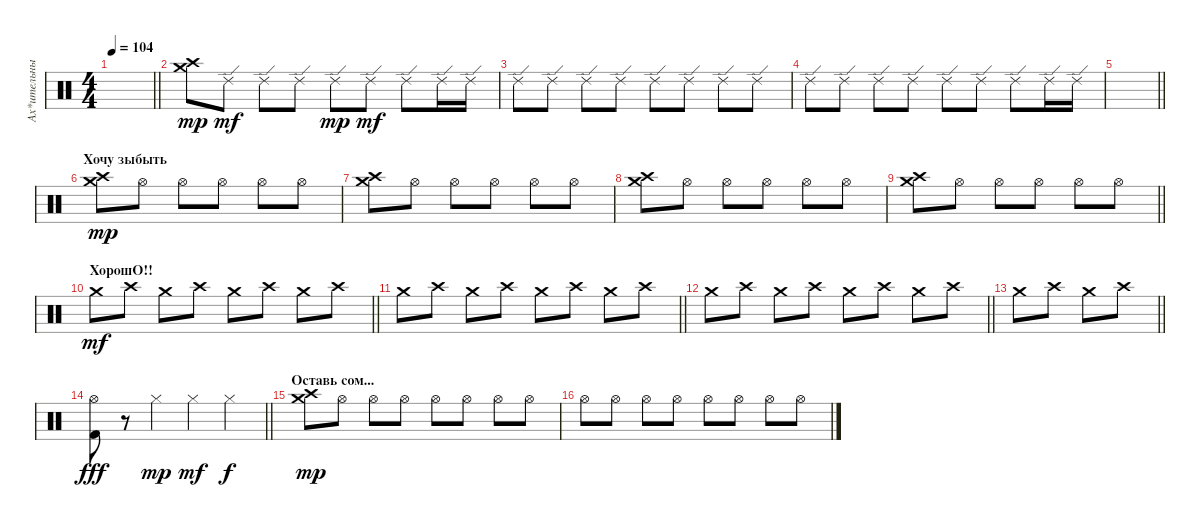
\track ("Ах*ительный барабанщик" "Ах*ительны") {instrument percussion}
\staff {score}
\articulation defaults
\ts (4 4)
\tempo 104
\clef neutral
\barLineRight lightlight
\ks c
|
("Crash high (hit)" "Crash medium (hit)").8{dy mp} "Ride (edge) 2".8{dy mf} "Ride (edge) 2".8 "Ride (edge) 2".8 "Ride (edge) 2".8{dy mp} "Ride (edge) 2".8{dy mf} "Ride (edge) 2".8 "Ride (edge) 2".16 "Ride (edge) 2".16 |
"Ride (edge) 2".8 "Ride (edge) 2".8 "Ride (edge) 2".8 "Ride (edge) 2".8 "Ride (edge) 2".8 "Ride (edge) 2".8 "Ride (edge) 2".8 "Ride (edge) 2".8 |
"Ride (edge) 2".8 "Ride (edge) 2".8 "Ride (edge) 2".8 "Ride (edge) 2".8 "Ride (edge) 2".8 "Ride (edge) 2".8 "Ride (edge) 2".8 "Ride (edge) 2".16 "Ride (edge) 2".16 |
\barLineRight lightlight
|
\section ("" "Хочу зыбыть")
("Crash high (hit)" "Crash medium (hit)").8{dy mp} "Hi-Hat (open)".8 "Hi-Hat (open)".8 "Hi-Hat (open)".8 "Hi-Hat (open)".8 "Hi-Hat (open)".8 |
("Crash high (hit)" "Crash medium (hit)").8 "Hi-Hat (open)".8 "Hi-Hat (open)".8 "Hi-Hat (open)".8 "Hi-Hat (open)".8 "Hi-Hat (open)".8 |
("Crash high (hit)" "Crash medium (hit)").8 "Hi-Hat (open)".8 "Hi-Hat (open)".8 "Hi-Hat (open)".8 "Hi-Hat (open)".8 "Hi-Hat (open)".8 |
\barLineRight lightlight
("Crash high (hit)" "Crash medium (hit)").8 "Hi-Hat (open)".8 "Hi-Hat (open)".8 "Hi-Hat (open)".8 "Hi-Hat (open)".8 "Hi-Hat (open)".8 |
\section ("" "ХорошО!!")
\barLineRight lightlight "Crash medium (hit)".8{dy mf} "Crash high (hit)".8 "Crash medium (hit)".8 "Crash high (hit)".8 "Crash medium (hit)".8 "Crash high (hit)".8 "Crash medium (hit)".8 "Crash high (hit)".8
|
\barLineRight lightlight "Crash medium (hit)".8 "Crash high (hit)".8 "Crash medium (hit)".8 "Crash high (hit)".8 "Crash medium (hit)".8 "Crash high (hit)".8 "Crash medium (hit)".8 "Crash high (hit)".8
|
\barLineRight lightlight "Crash medium (hit)".8 "Crash high (hit)".8 "Crash medium (hit)".8 "Crash high (hit)".8 "Crash medium (hit)".8 "Crash high (hit)".8 "Crash medium (hit)".8 "Crash high (hit)".8
|
\barLineRight lightlight "Crash medium (hit)".8 "Crash high (hit)".8 "Crash medium (hit)".8 "Crash high (hit)".8
|
\barLineRight lightlight
("Hi-Hat (open)" "Kick (hit) 2").8{dy fff} r.8 "Hi-Hat (closed)".4{dy mp} "Hi-Hat (closed)".4{dy mf} "Hi-Hat (closed)".4{dy f} |
\section ("" "Оставь сом...")
("Crash medium (hit)" "Crash high (hit)").8{dy mp} "Hi-Hat (open)".8 "Hi-Hat (open)".8 "Hi-Hat (open)".8 "Hi-Hat (open)".8 "Hi-Hat (open)".8 "Hi-Hat (open)".8 "Hi-Hat (open)".8 |
"Hi-Hat (open)".8 "Hi-Hat (open)".8 "Hi-Hat (open)".8 "Hi-Hat (open)".8 "Hi-Hat (open)".8 "Hi-Hat (open)".8 "Hi-Hat (open)".8 "Hi-Hat (open)".8
